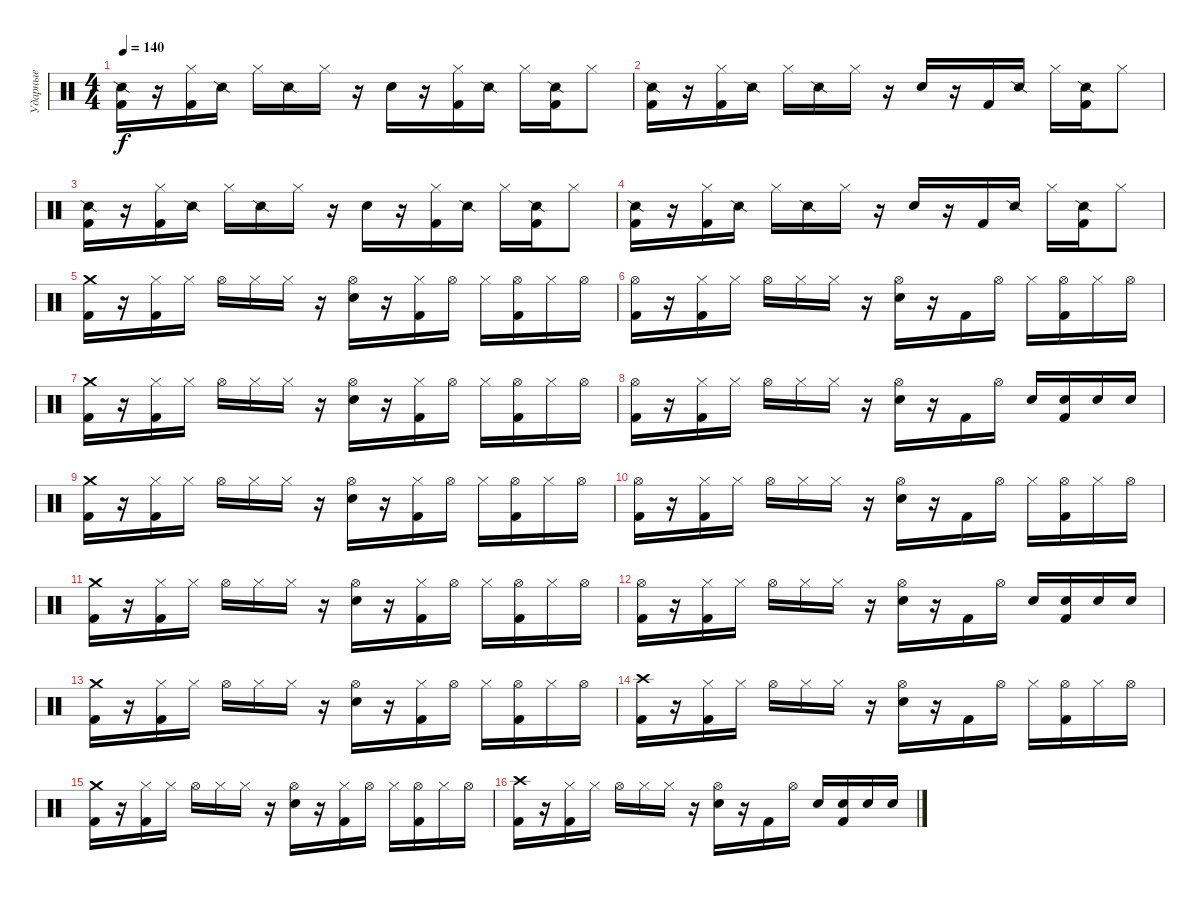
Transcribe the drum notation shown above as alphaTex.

\track ("Ударные" "Ударные") {instrument percussion}
\staff {score}
\articulation defaults
\ts (4 4)
\tempo 140
\clef neutral
\ks c
("Snare (side stick) 2" "Kick (hit) 2").16{dy f} r.16 ("Hi-Hat (closed)" "Kick (hit) 2").16 "Snare (side stick) 2".16 "Hi-Hat (closed)".16 "Snare (side stick) 2".16 "Hi-Hat (closed)".16 r.16 "Electric Snare (hit)".16 r.16 ("Hi-Hat (closed)" "Kick (hit) 2").16 "Snare (side stick) 2".16 "Hi-Hat (closed)".16 ("Snare (side stick) 2" "Kick (hit) 2").16 "Hi-Hat (closed)".8 |
("Snare (side stick) 2" "Kick (hit) 2").16 r.16 ("Hi-Hat (closed)" "Kick (hit) 2").16 "Snare (side stick) 2".16 "Hi-Hat (closed)".16 "Snare (side stick) 2".16 "Hi-Hat (closed)".16 r.16 "Electric Snare (hit)".16 r.16 "Kick (hit) 2".16 "Snare (side stick) 2".16 "Hi-Hat (closed)".16 ("Snare (side stick) 2" "Kick (hit) 2").16 "Hi-Hat (closed)".8 |
("Snare (side stick) 2" "Kick (hit) 2").16 r.16 ("Hi-Hat (closed)" "Kick (hit) 2").16 "Snare (side stick) 2".16 "Hi-Hat (closed)".16 "Snare (side stick) 2".16 "Hi-Hat (closed)".16 r.16 "Electric Snare (hit)".16 r.16 ("Hi-Hat (closed)" "Kick (hit) 2").16 "Snare (side stick) 2".16 "Hi-Hat (closed)".16 ("Snare (side stick) 2" "Kick (hit) 2").16 "Hi-Hat (closed)".8 |
("Snare (side stick) 2" "Kick (hit) 2").16 r.16 ("Hi-Hat (closed)" "Kick (hit) 2").16 "Snare (side stick) 2".16 "Hi-Hat (closed)".16 "Snare (side stick) 2".16 "Hi-Hat (closed)".16 r.16 "Electric Snare (hit)".16 r.16 "Kick (hit) 2".16 "Snare (side stick) 2".16 "Hi-Hat (closed)".16 ("Snare (side stick) 2" "Kick (hit) 2").16 "Hi-Hat (closed)".8 |
("Crash medium (hit)" "Kick (hit) 2").16 r.16 ("Hi-Hat (closed)" "Kick (hit) 2").16 "Hi-Hat (closed)".16 "Hi-Hat (open)".16 "Hi-Hat (closed)".16 "Hi-Hat (closed)".16 r.16 ("Hi-Hat (open)" "Electric Snare (hit)").16 r.16 ("Hi-Hat (closed)" "Kick (hit) 2").16 "Hi-Hat (open)".16 "Hi-Hat (closed)".16 ("Hi-Hat (open)" "Kick (hit) 2").16 "Hi-Hat (closed)".16 "Hi-Hat (open)".16 |
("Hi-Hat (open)" "Kick (hit) 2").16 r.16 ("Hi-Hat (closed)" "Kick (hit) 2").16 "Hi-Hat (closed)".16 "Hi-Hat (open)".16 "Hi-Hat (closed)".16 "Hi-Hat (closed)".16 r.16 ("Hi-Hat (open)" "Electric Snare (hit)").16 r.16 "Kick (hit) 2".16 "Hi-Hat (open)".16 "Hi-Hat (closed)".16 ("Hi-Hat (open)" "Kick (hit) 2").16 "Hi-Hat (closed)".16 "Hi-Hat (open)".16 |
("Crash medium (hit)" "Kick (hit) 2").16 r.16 ("Hi-Hat (closed)" "Kick (hit) 2").16 "Hi-Hat (closed)".16 "Hi-Hat (open)".16 "Hi-Hat (closed)".16 "Hi-Hat (closed)".16 r.16 ("Hi-Hat (open)" "Electric Snare (hit)").16 r.16 ("Hi-Hat (closed)" "Kick (hit) 2").16 "Hi-Hat (open)".16 "Hi-Hat (closed)".16 ("Hi-Hat (open)" "Kick (hit) 2").16 "Hi-Hat (closed)".16 "Hi-Hat (open)".16 |
("Hi-Hat (open)" "Kick (hit) 2").16 r.16 ("Hi-Hat (closed)" "Kick (hit) 2").16 "Hi-Hat (closed)".16 "Hi-Hat (open)".16 "Hi-Hat (closed)".16 "Hi-Hat (closed)".16 r.16 ("Hi-Hat (open)" "Electric Snare (hit)").16 r.16 "Kick (hit) 2".16 "Hi-Hat (open)".16 "Electric Snare (hit)".16 ("Electric Snare (hit)" "Kick (hit) 2").16 "Electric Snare (hit)".16 "Electric Snare (hit)".16 |
("Crash medium (hit)" "Kick (hit) 2").16 r.16 ("Hi-Hat (closed)" "Kick (hit) 2").16 "Hi-Hat (closed)".16 "Hi-Hat (open)".16 "Hi-Hat (closed)".16 "Hi-Hat (closed)".16 r.16 ("Hi-Hat (open)" "Electric Snare (hit)").16 r.16 ("Hi-Hat (closed)" "Kick (hit) 2").16 "Hi-Hat (open)".16 "Hi-Hat (closed)".16 ("Hi-Hat (open)" "Kick (hit) 2").16 "Hi-Hat (closed)".16 "Hi-Hat (open)".16 |
("Hi-Hat (open)" "Kick (hit) 2").16 r.16 ("Hi-Hat (closed)" "Kick (hit) 2").16 "Hi-Hat (closed)".16 "Hi-Hat (open)".16 "Hi-Hat (closed)".16 "Hi-Hat (closed)".16 r.16 ("Hi-Hat (open)" "Electric Snare (hit)").16 r.16 "Kick (hit) 2".16 "Hi-Hat (open)".16 "Hi-Hat (closed)".16 ("Hi-Hat (open)" "Kick (hit) 2").16 "Hi-Hat (closed)".16 "Hi-Hat (open)".16 |
("Crash medium (hit)" "Kick (hit) 2").16 r.16 ("Hi-Hat (closed)" "Kick (hit) 2").16 "Hi-Hat (closed)".16 "Hi-Hat (open)".16 "Hi-Hat (closed)".16 "Hi-Hat (closed)".16 r.16 ("Hi-Hat (open)" "Electric Snare (hit)").16 r.16 ("Hi-Hat (closed)" "Kick (hit) 2").16 "Hi-Hat (open)".16 "Hi-Hat (closed)".16 ("Hi-Hat (open)" "Kick (hit) 2").16 "Hi-Hat (closed)".16 "Hi-Hat (open)".16 |
("Hi-Hat (open)" "Kick (hit) 2").16 r.16 ("Hi-Hat (closed)" "Kick (hit) 2").16 "Hi-Hat (closed)".16 "Hi-Hat (open)".16 "Hi-Hat (closed)".16 "Hi-Hat (closed)".16 r.16 ("Hi-Hat (open)" "Electric Snare (hit)").16 r.16 "Kick (hit) 2".16 "Hi-Hat (open)".16 "Electric Snare (hit)".16 ("Electric Snare (hit)" "Kick (hit) 2").16 "Electric Snare (hit)".16 "Electric Snare (hit)".16 |
("Crash medium (hit)" "Kick (hit) 2").16 r.16 ("Hi-Hat (closed)" "Kick (hit) 2").16 "Hi-Hat (closed)".16 "Hi-Hat (open)".16 "Hi-Hat (closed)".16 "Hi-Hat (closed)".16 r.16 ("Hi-Hat (open)" "Electric Snare (hit)").16 r.16 ("Hi-Hat (closed)" "Kick (hit) 2").16 "Hi-Hat (open)".16 "Hi-Hat (closed)".16 ("Hi-Hat (open)" "Kick (hit) 2").16 "Hi-Hat (closed)".16 "Hi-Hat (open)".16 |
("Crash high (hit)" "Kick (hit) 2").16 r.16 ("Hi-Hat (closed)" "Kick (hit) 2").16 "Hi-Hat (closed)".16 "Hi-Hat (open)".16 "Hi-Hat (closed)".16 "Hi-Hat (closed)".16 r.16 ("Hi-Hat (open)" "Electric Snare (hit)").16 r.16 "Kick (hit) 2".16 "Hi-Hat (open)".16 "Hi-Hat (closed)".16 ("Hi-Hat (open)" "Kick (hit) 2").16 "Hi-Hat (closed)".16 "Hi-Hat (open)".16 |
("Crash medium (hit)" "Kick (hit) 2").16 r.16 ("Hi-Hat (closed)" "Kick (hit) 2").16 "Hi-Hat (closed)".16 "Hi-Hat (open)".16 "Hi-Hat (closed)".16 "Hi-Hat (closed)".16 r.16 ("Hi-Hat (open)" "Electric Snare (hit)").16 r.16 ("Hi-Hat (closed)" "Kick (hit) 2").16 "Hi-Hat (open)".16 "Hi-Hat (closed)".16 ("Hi-Hat (open)" "Kick (hit) 2").16 "Hi-Hat (closed)".16 "Hi-Hat (open)".16 |
("Crash high (hit)" "Kick (hit) 2").16 r.16 ("Hi-Hat (closed)" "Kick (hit) 2").16 "Hi-Hat (closed)".16 "Hi-Hat (open)".16 "Hi-Hat (closed)".16 "Hi-Hat (closed)".16 r.16 ("Hi-Hat (open)" "Electric Snare (hit)").16 r.16 "Kick (hit) 2".16 "Hi-Hat (open)".16 "Electric Snare (hit)".16 ("Electric Snare (hit)" "Kick (hit) 2").16 "Electric Snare (hit)".16 "Electric Snare (hit)".16
